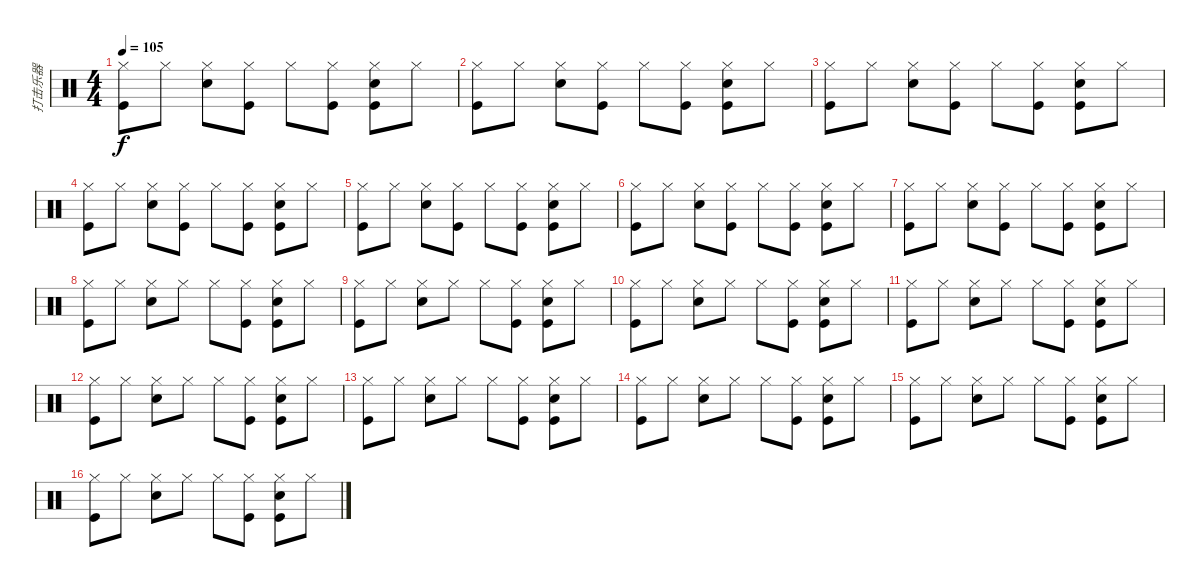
\track ("打击乐器" "打击乐器") {instrument percussion}
\staff {score}
\articulation defaults
\ts (4 4)
\tempo 105
\clef neutral
\ks c
("Hi-Hat (closed)" "Kick (hit)").8{dy f} "Hi-Hat (closed)".8 ("Hi-Hat (closed)" "Snare (hit) 2").8 ("Hi-Hat (closed)" "Kick (hit)").8 "Hi-Hat (closed)".8 ("Hi-Hat (closed)" "Kick (hit)").8 ("Hi-Hat (closed)" "Snare (hit) 2" "Kick (hit)").8 "Hi-Hat (closed)".8 |
("Hi-Hat (closed)" "Kick (hit)").8 "Hi-Hat (closed)".8 ("Hi-Hat (closed)" "Snare (hit) 2").8 ("Hi-Hat (closed)" "Kick (hit)").8 "Hi-Hat (closed)".8 ("Hi-Hat (closed)" "Kick (hit)").8 ("Hi-Hat (closed)" "Snare (hit) 2" "Kick (hit)").8 "Hi-Hat (closed)".8 |
("Hi-Hat (closed)" "Kick (hit)").8 "Hi-Hat (closed)".8 ("Hi-Hat (closed)" "Snare (hit) 2").8 ("Hi-Hat (closed)" "Kick (hit)").8 "Hi-Hat (closed)".8 ("Hi-Hat (closed)" "Kick (hit)").8 ("Hi-Hat (closed)" "Snare (hit) 2" "Kick (hit)").8 "Hi-Hat (closed)".8 |
("Hi-Hat (closed)" "Kick (hit)").8 "Hi-Hat (closed)".8 ("Hi-Hat (closed)" "Snare (hit) 2").8 ("Hi-Hat (closed)" "Kick (hit)").8 "Hi-Hat (closed)".8 ("Hi-Hat (closed)" "Kick (hit)").8 ("Hi-Hat (closed)" "Snare (hit) 2" "Kick (hit)").8 "Hi-Hat (closed)".8 |
("Hi-Hat (closed)" "Kick (hit)").8 "Hi-Hat (closed)".8 ("Hi-Hat (closed)" "Snare (hit) 2").8 ("Hi-Hat (closed)" "Kick (hit)").8 "Hi-Hat (closed)".8 ("Hi-Hat (closed)" "Kick (hit)").8 ("Hi-Hat (closed)" "Snare (hit) 2" "Kick (hit)").8 "Hi-Hat (closed)".8 |
("Hi-Hat (closed)" "Kick (hit)").8 "Hi-Hat (closed)".8 ("Hi-Hat (closed)" "Snare (hit) 2").8 ("Hi-Hat (closed)" "Kick (hit)").8 "Hi-Hat (closed)".8 ("Hi-Hat (closed)" "Kick (hit)").8 ("Hi-Hat (closed)" "Snare (hit) 2" "Kick (hit)").8 "Hi-Hat (closed)".8 |
("Hi-Hat (closed)" "Kick (hit)").8 "Hi-Hat (closed)".8 ("Hi-Hat (closed)" "Snare (hit) 2").8 ("Hi-Hat (closed)" "Kick (hit)").8 "Hi-Hat (closed)".8 ("Hi-Hat (closed)" "Kick (hit)").8 ("Hi-Hat (closed)" "Snare (hit) 2" "Kick (hit)").8 "Hi-Hat (closed)".8 |
("Hi-Hat (closed)" "Kick (hit)").8 "Hi-Hat (closed)".8 ("Hi-Hat (closed)" "Snare (hit) 2").8 "Hi-Hat (closed)".8 "Hi-Hat (closed)".8 ("Hi-Hat (closed)" "Kick (hit)").8 ("Hi-Hat (closed)" "Snare (hit) 2" "Kick (hit)").8 "Hi-Hat (closed)".8 |
("Hi-Hat (closed)" "Kick (hit)").8 "Hi-Hat (closed)".8 ("Hi-Hat (closed)" "Snare (hit) 2").8 "Hi-Hat (closed)".8 "Hi-Hat (closed)".8 ("Hi-Hat (closed)" "Kick (hit)").8 ("Hi-Hat (closed)" "Snare (hit) 2" "Kick (hit)").8 "Hi-Hat (closed)".8 |
("Hi-Hat (closed)" "Kick (hit)").8 "Hi-Hat (closed)".8 ("Hi-Hat (closed)" "Snare (hit) 2").8 "Hi-Hat (closed)".8 "Hi-Hat (closed)".8 ("Hi-Hat (closed)" "Kick (hit)").8 ("Hi-Hat (closed)" "Snare (hit) 2" "Kick (hit)").8 "Hi-Hat (closed)".8 |
("Hi-Hat (closed)" "Kick (hit)").8 "Hi-Hat (closed)".8 ("Hi-Hat (closed)" "Snare (hit) 2").8 "Hi-Hat (closed)".8 "Hi-Hat (closed)".8 ("Hi-Hat (closed)" "Kick (hit)").8 ("Hi-Hat (closed)" "Snare (hit) 2" "Kick (hit)").8 "Hi-Hat (closed)".8 |
("Hi-Hat (closed)" "Kick (hit)").8 "Hi-Hat (closed)".8 ("Hi-Hat (closed)" "Snare (hit) 2").8 "Hi-Hat (closed)".8 "Hi-Hat (closed)".8 ("Hi-Hat (closed)" "Kick (hit)").8 ("Hi-Hat (closed)" "Snare (hit) 2" "Kick (hit)").8 "Hi-Hat (closed)".8 |
("Hi-Hat (closed)" "Kick (hit)").8 "Hi-Hat (closed)".8 ("Hi-Hat (closed)" "Snare (hit) 2").8 "Hi-Hat (closed)".8 "Hi-Hat (closed)".8 ("Hi-Hat (closed)" "Kick (hit)").8 ("Hi-Hat (closed)" "Snare (hit) 2" "Kick (hit)").8 "Hi-Hat (closed)".8 |
("Hi-Hat (closed)" "Kick (hit)").8 "Hi-Hat (closed)".8 ("Hi-Hat (closed)" "Snare (hit) 2").8 "Hi-Hat (closed)".8 "Hi-Hat (closed)".8 ("Hi-Hat (closed)" "Kick (hit)").8 ("Hi-Hat (closed)" "Snare (hit) 2" "Kick (hit)").8 "Hi-Hat (closed)".8 |
("Hi-Hat (closed)" "Kick (hit)").8 "Hi-Hat (closed)".8 ("Hi-Hat (closed)" "Snare (hit) 2").8 "Hi-Hat (closed)".8 "Hi-Hat (closed)".8 ("Hi-Hat (closed)" "Kick (hit)").8 ("Hi-Hat (closed)" "Snare (hit) 2" "Kick (hit)").8 "Hi-Hat (closed)".8 |
("Hi-Hat (closed)" "Kick (hit)").8 "Hi-Hat (closed)".8 ("Hi-Hat (closed)" "Snare (hit) 2").8 "Hi-Hat (closed)".8 "Hi-Hat (closed)".8 ("Hi-Hat (closed)" "Kick (hit)").8 ("Hi-Hat (closed)" "Snare (hit) 2" "Kick (hit)").8 "Hi-Hat (closed)".8
